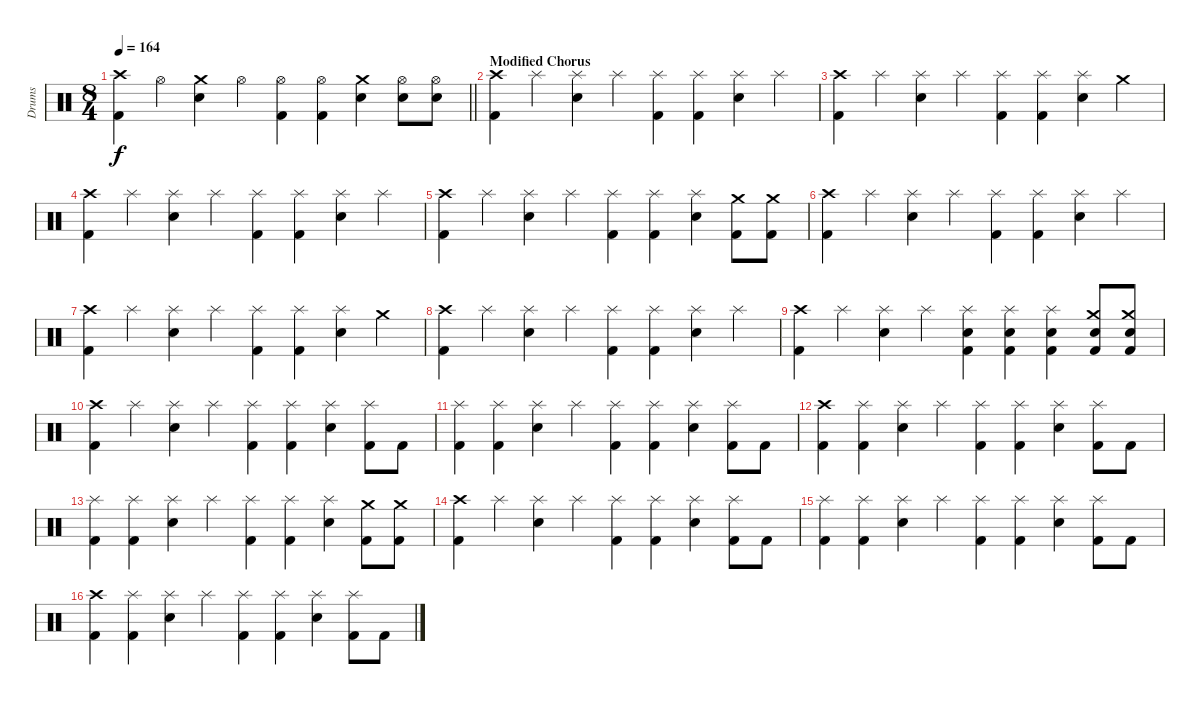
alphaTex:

\track ("Drums" "Drums") {instrument percussion}
\staff {score}
\articulation defaults
\ts (8 4)
\tempo 164
\clef neutral
\barLineRight lightlight
\ks c
("Crash high (hit)" "Kick (hit) 2").4{dy f} "Hi-Hat (open)".4 ("Crash medium (hit)" "Snare (hit) 2").4 "Hi-Hat (open)".4 ("Hi-Hat (open)" "Kick (hit) 2").4 ("Hi-Hat (open)" "Kick (hit) 2").4 ("Crash medium (hit)" "Snare (hit) 2").4 ("Hi-Hat (open)" "Snare (hit) 2").8 ("Hi-Hat (open)" "Snare (hit) 2").8 |
\section ("" "Modified Chorus")
("Crash high (hit)" "Kick (hit) 2").4 "Splash (hit)".4 ("Splash (hit)" "Snare (hit) 2").4 "Splash (hit)".4 ("Splash (hit)" "Kick (hit) 2").4 ("Splash (hit)" "Kick (hit) 2").4 ("Splash (hit)" "Snare (hit) 2").4 "Splash (hit)".4 |
("Crash high (hit)" "Kick (hit) 2").4 "Splash (hit)".4 ("Splash (hit)" "Snare (hit) 2").4 "Splash (hit)".4 ("Splash (hit)" "Kick (hit) 2").4 ("Splash (hit)" "Kick (hit) 2").4 ("Splash (hit)" "Snare (hit) 2").4 "Crash medium (hit)".4 |
("Crash high (hit)" "Kick (hit) 2").4 "Splash (hit)".4 ("Splash (hit)" "Snare (hit) 2").4 "Splash (hit)".4 ("Splash (hit)" "Kick (hit) 2").4 ("Splash (hit)" "Kick (hit) 2").4 ("Splash (hit)" "Snare (hit) 2").4 "Splash (hit)".4 |
("Crash high (hit)" "Kick (hit) 2").4 "Splash (hit)".4 ("Splash (hit)" "Snare (hit) 2").4 "Splash (hit)".4 ("Splash (hit)" "Kick (hit) 2").4 ("Splash (hit)" "Kick (hit) 2").4 ("Splash (hit)" "Snare (hit) 2").4 ("Crash medium (hit)" "Kick (hit) 2").8 ("Crash medium (hit)" "Kick (hit) 2").8 |
("Crash high (hit)" "Kick (hit) 2").4 "Splash (hit)".4 ("Splash (hit)" "Snare (hit) 2").4 "Splash (hit)".4 ("Splash (hit)" "Kick (hit) 2").4 ("Splash (hit)" "Kick (hit) 2").4 ("Splash (hit)" "Snare (hit) 2").4 "Splash (hit)".4 |
("Crash high (hit)" "Kick (hit) 2").4 "Splash (hit)".4 ("Splash (hit)" "Snare (hit) 2").4 "Splash (hit)".4 ("Splash (hit)" "Kick (hit) 2").4 ("Splash (hit)" "Kick (hit) 2").4 ("Splash (hit)" "Snare (hit) 2").4 "Crash medium (hit)".4 |
("Crash high (hit)" "Kick (hit) 2").4 "Splash (hit)".4 ("Splash (hit)" "Snare (hit) 2").4 "Splash (hit)".4 ("Splash (hit)" "Kick (hit) 2").4 ("Splash (hit)" "Kick (hit) 2").4 ("Splash (hit)" "Snare (hit) 2").4 "Splash (hit)".4 |
("Crash high (hit)" "Kick (hit) 2").4 "Splash (hit)".4 ("Splash (hit)" "Snare (hit) 2").4 "Splash (hit)".4 ("Splash (hit)" "Snare (hit) 2" "Kick (hit) 2").4 ("Splash (hit)" "Snare (hit) 2" "Kick (hit) 2").4 ("Splash (hit)" "Snare (hit) 2" "Kick (hit) 2").4 ("Crash medium (hit)" "Snare (hit) 2" "Kick (hit) 2").8 ("Crash medium (hit)" "Snare (hit) 2" "Kick (hit) 2").8 |
("Crash high (hit)" "Kick (hit) 2").4 "Splash (hit)".4 ("Splash (hit)" "Snare (hit) 2").4 "Splash (hit)".4 ("Splash (hit)" "Kick (hit) 2").4 ("Splash (hit)" "Kick (hit) 2").4 ("Splash (hit)" "Snare (hit) 2").4 ("Splash (hit)" "Kick (hit) 2").8 "Kick (hit) 2".8 |
("Splash (hit)" "Kick (hit) 2").4 ("Splash (hit)" "Kick (hit) 2").4 ("Splash (hit)" "Snare (hit) 2").4 "Splash (hit)".4 ("Splash (hit)" "Kick (hit) 2").4 ("Splash (hit)" "Kick (hit) 2").4 ("Splash (hit)" "Snare (hit) 2").4 ("Splash (hit)" "Kick (hit) 2").8 "Kick (hit) 2".8 |
("Crash high (hit)" "Kick (hit) 2").4 ("Splash (hit)" "Kick (hit) 2").4 ("Splash (hit)" "Snare (hit) 2").4 "Splash (hit)".4 ("Splash (hit)" "Kick (hit) 2").4 ("Splash (hit)" "Kick (hit) 2").4 ("Splash (hit)" "Snare (hit) 2").4 ("Splash (hit)" "Kick (hit) 2").8 "Kick (hit) 2".8 |
("Splash (hit)" "Kick (hit) 2").4 ("Splash (hit)" "Kick (hit) 2").4 ("Splash (hit)" "Snare (hit) 2").4 "Splash (hit)".4 ("Splash (hit)" "Kick (hit) 2").4 ("Splash (hit)" "Kick (hit) 2").4 ("Splash (hit)" "Snare (hit) 2").4 ("Crash medium (hit)" "Kick (hit) 2").8 ("Crash medium (hit)" "Kick (hit) 2").8 |
("Crash high (hit)" "Kick (hit) 2").4 "Splash (hit)".4 ("Splash (hit)" "Snare (hit) 2").4 "Splash (hit)".4 ("Splash (hit)" "Kick (hit) 2").4 ("Splash (hit)" "Kick (hit) 2").4 ("Splash (hit)" "Snare (hit) 2").4 ("Splash (hit)" "Kick (hit) 2").8 "Kick (hit) 2".8 |
("Splash (hit)" "Kick (hit) 2").4 ("Splash (hit)" "Kick (hit) 2").4 ("Splash (hit)" "Snare (hit) 2").4 "Splash (hit)".4 ("Splash (hit)" "Kick (hit) 2").4 ("Splash (hit)" "Kick (hit) 2").4 ("Splash (hit)" "Snare (hit) 2").4 ("Splash (hit)" "Kick (hit) 2").8 "Kick (hit) 2".8 |
("Crash high (hit)" "Kick (hit) 2").4 ("Splash (hit)" "Kick (hit) 2").4 ("Splash (hit)" "Snare (hit) 2").4 "Splash (hit)".4 ("Splash (hit)" "Kick (hit) 2").4 ("Splash (hit)" "Kick (hit) 2").4 ("Splash (hit)" "Snare (hit) 2").4 ("Splash (hit)" "Kick (hit) 2").8 "Kick (hit) 2".8
